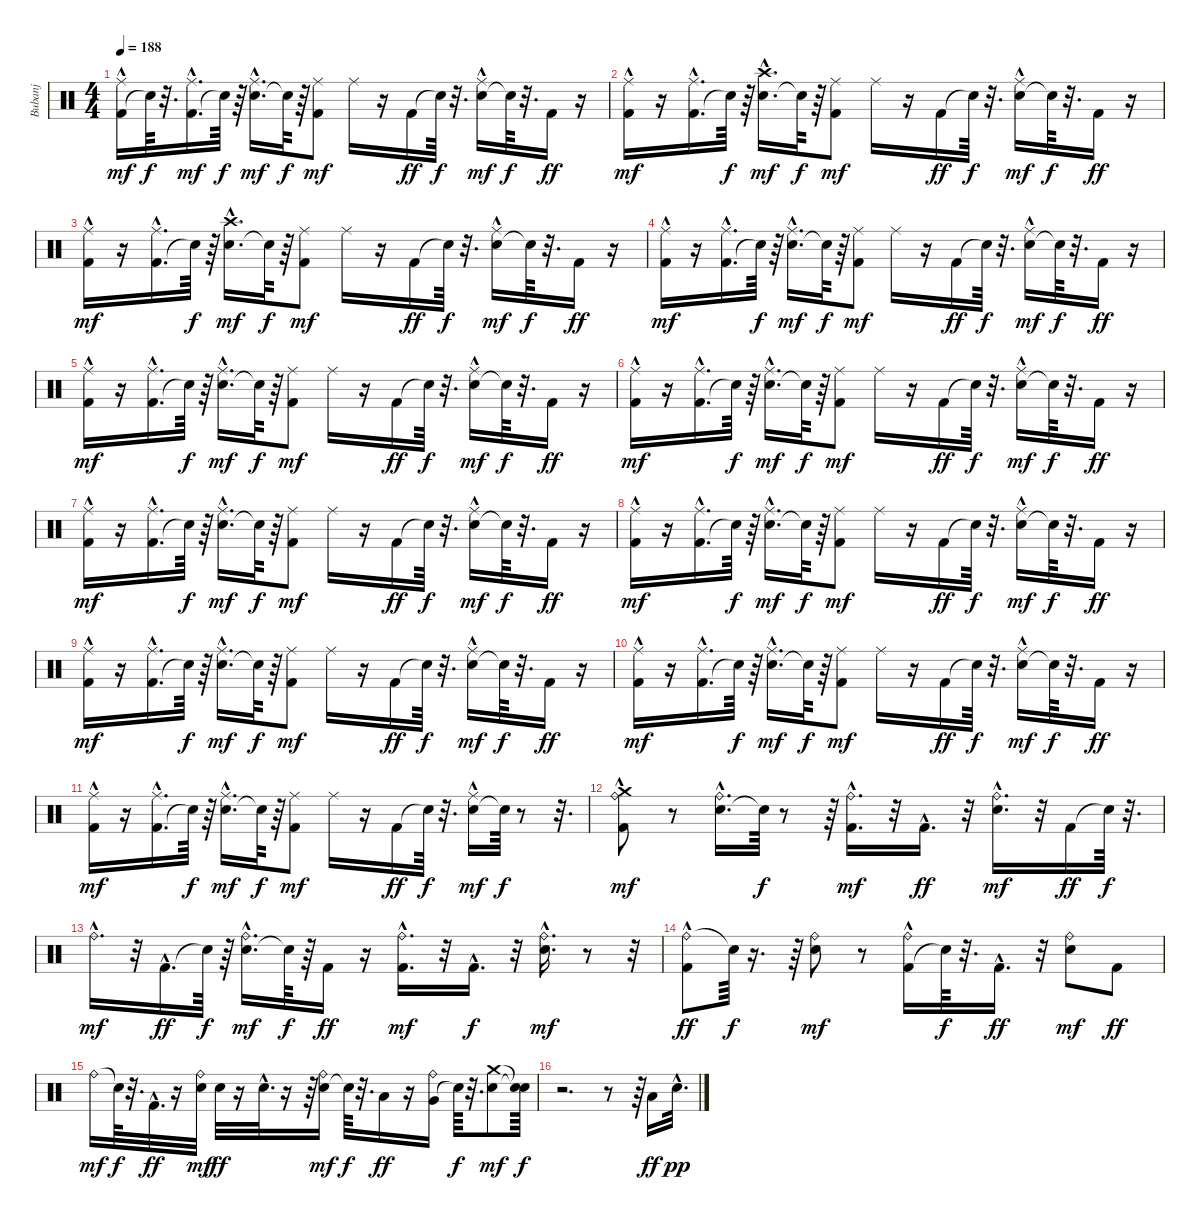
\track ("Bubanj" "Bubanj") {instrument percussion}
\staff {score}
\articulation defaults
\ts (4 4)
\tempo 188
\clef neutral
\ks c
("Kick (hit) 2" "Ride (middle)"{hac}).16{dy mf} "Snare (hit)"{t}.64{dy f} r.32{d} ("Kick (hit) 2"{hac} "Ride (middle)").16{d dy mf} "Snare (hit)"{t}.64{dy f} r.64 ("Electric Snare (hit)"{hac} "Ride (middle)").16{d dy mf} "Snare (hit)"{t}.64{dy f} r.64 ("Kick (hit) 2" "Ride (middle)").8{dy mf} "Ride (middle)".16 r.16 "Kick (hit) 2".16{dy ff} "Snare (hit)"{t}.64{dy f} r.32{d} ("Electric Snare (hit)" "Ride (middle)"{hac}).16{dy mf} "Snare (hit)"{t}.64{dy f} r.32{d} "Kick (hit) 2".16{dy ff} r.16 |
("Kick (hit) 2" "Ride (middle)"{hac}).16{dy mf} r.16 ("Kick (hit) 2"{hac} "Ride (middle)").16{d} "Snare (hit)"{t}.64{dy f} r.64 ("Electric Snare (hit)"{hac} "Crash high (hit)").16{d dy mf} "Snare (hit)"{t}.64{dy f} r.64 ("Kick (hit) 2" "Ride (middle)").8{dy mf} "Ride (middle)".16 r.16 "Kick (hit) 2".16{dy ff} "Snare (hit)"{t}.64{dy f} r.32{d} ("Electric Snare (hit)" "Ride (middle)"{hac}).16{dy mf} "Snare (hit)"{t}.64{dy f} r.32{d} "Kick (hit) 2".16{dy ff} r.16 |
("Kick (hit) 2" "Ride (middle)"{hac}).16{dy mf} r.16 ("Kick (hit) 2"{hac} "Ride (middle)").16{d} "Snare (hit)"{t}.64{dy f} r.64 ("Electric Snare (hit)"{hac} "Crash high (hit)").16{d dy mf} "Snare (hit)"{t}.64{dy f} r.64 ("Kick (hit) 2" "Ride (middle)").8{dy mf} "Ride (middle)".16 r.16 "Kick (hit) 2".16{dy ff} "Snare (hit)"{t}.64{dy f} r.32{d} ("Electric Snare (hit)" "Ride (middle)"{hac}).16{dy mf} "Snare (hit)"{t}.64{dy f} r.32{d} "Kick (hit) 2".16{dy ff} r.16 |
("Kick (hit) 2" "Ride (middle)"{hac}).16{dy mf} r.16 ("Kick (hit) 2"{hac} "Ride (middle)").16{d} "Snare (hit)"{t}.64{dy f} r.64 ("Electric Snare (hit)"{hac} "Ride (middle)").16{d dy mf} "Snare (hit)"{t}.64{dy f} r.64 ("Kick (hit) 2" "Ride (middle)").8{dy mf} "Ride (middle)".16 r.16 "Kick (hit) 2".16{dy ff} "Snare (hit)"{t}.64{dy f} r.32{d} ("Electric Snare (hit)" "Ride (middle)"{hac}).16{dy mf} "Snare (hit)"{t}.64{dy f} r.32{d} "Kick (hit) 2".16{dy ff} r.16 |
("Kick (hit) 2" "Ride (middle)"{hac}).16{dy mf} r.16 ("Kick (hit) 2"{hac} "Ride (middle)").16{d} "Snare (hit)"{t}.64{dy f} r.64 ("Electric Snare (hit)"{hac} "Ride (middle)").16{d dy mf} "Snare (hit)"{t}.64{dy f} r.64 ("Kick (hit) 2" "Ride (middle)").8{dy mf} "Ride (middle)".16 r.16 "Kick (hit) 2".16{dy ff} "Snare (hit)"{t}.64{dy f} r.32{d} ("Electric Snare (hit)" "Ride (middle)"{hac}).16{dy mf} "Snare (hit)"{t}.64{dy f} r.32{d} "Kick (hit) 2".16{dy ff} r.16 |
("Kick (hit) 2" "Ride (middle)"{hac}).16{dy mf} r.16 ("Kick (hit) 2"{hac} "Ride (middle)").16{d} "Snare (hit)"{t}.64{dy f} r.64 ("Electric Snare (hit)"{hac} "Ride (middle)").16{d dy mf} "Snare (hit)"{t}.64{dy f} r.64 ("Kick (hit) 2" "Ride (middle)").8{dy mf} "Ride (middle)".16 r.16 "Kick (hit) 2".16{dy ff} "Snare (hit)"{t}.64{dy f} r.32{d} ("Electric Snare (hit)" "Ride (middle)"{hac}).16{dy mf} "Snare (hit)"{t}.64{dy f} r.32{d} "Kick (hit) 2".16{dy ff} r.16 |
("Kick (hit) 2" "Ride (middle)"{hac}).16{dy mf} r.16 ("Kick (hit) 2"{hac} "Ride (middle)").16{d} "Snare (hit)"{t}.64{dy f} r.64 ("Electric Snare (hit)"{hac} "Ride (middle)").16{d dy mf} "Snare (hit)"{t}.64{dy f} r.64 ("Kick (hit) 2" "Ride (middle)").8{dy mf} "Ride (middle)".16 r.16 "Kick (hit) 2".16{dy ff} "Snare (hit)"{t}.64{dy f} r.32{d} ("Electric Snare (hit)" "Ride (middle)"{hac}).16{dy mf} "Snare (hit)"{t}.64{dy f} r.32{d} "Kick (hit) 2".16{dy ff} r.16 |
("Kick (hit) 2" "Ride (middle)"{hac}).16{dy mf} r.16 ("Kick (hit) 2"{hac} "Ride (middle)").16{d} "Snare (hit)"{t}.64{dy f} r.64 ("Electric Snare (hit)"{hac} "Ride (middle)").16{d dy mf} "Snare (hit)"{t}.64{dy f} r.64 ("Kick (hit) 2" "Ride (middle)").8{dy mf} "Ride (middle)".16 r.16 "Kick (hit) 2".16{dy ff} "Snare (hit)"{t}.64{dy f} r.32{d} ("Electric Snare (hit)" "Ride (middle)"{hac}).16{dy mf} "Snare (hit)"{t}.64{dy f} r.32{d} "Kick (hit) 2".16{dy ff} r.16 |
("Kick (hit) 2" "Ride (middle)"{hac}).16{dy mf} r.16 ("Kick (hit) 2"{hac} "Ride (middle)").16{d} "Snare (hit)"{t}.64{dy f} r.64 ("Electric Snare (hit)"{hac} "Ride (middle)").16{d dy mf} "Snare (hit)"{t}.64{dy f} r.64 ("Kick (hit) 2" "Ride (middle)").8{dy mf} "Ride (middle)".16 r.16 "Kick (hit) 2".16{dy ff} "Snare (hit)"{t}.64{dy f} r.32{d} ("Electric Snare (hit)" "Ride (middle)"{hac}).16{dy mf} "Snare (hit)"{t}.64{dy f} r.32{d} "Kick (hit) 2".16{dy ff} r.16 |
("Kick (hit) 2" "Ride (middle)"{hac}).16{dy mf} r.16 ("Kick (hit) 2"{hac} "Ride (middle)").16{d} "Snare (hit)"{t}.64{dy f} r.64 ("Electric Snare (hit)"{hac} "Ride (middle)").16{d dy mf} "Snare (hit)"{t}.64{dy f} r.64 ("Kick (hit) 2" "Ride (middle)").8{dy mf} "Ride (middle)".16 r.16 "Kick (hit) 2".16{dy ff} "Snare (hit)"{t}.64{dy f} r.32{d} ("Electric Snare (hit)" "Ride (middle)"{hac}).16{dy mf} "Snare (hit)"{t}.64{dy f} r.32{d} "Kick (hit) 2".16{dy ff} r.16 |
("Kick (hit) 2" "Ride (middle)"{hac}).16{dy mf} r.16 ("Kick (hit) 2"{hac} "Ride (middle)").16{d} "Snare (hit)"{t}.64{dy f} r.64 ("Electric Snare (hit)"{hac} "Ride (middle)").16{d dy mf} "Snare (hit)"{t}.64{dy f} r.64 ("Kick (hit) 2" "Ride (middle)").8{dy mf} "Ride (middle)".16 r.16 "Kick (hit) 2".16{dy ff} "Snare (hit)"{t}.64{dy f} r.32{d} ("Electric Snare (hit)" "Ride (middle)"{hac}).16{dy mf} "Snare (hit)"{t}.64{dy f} r.8 r.32{d} |
("Kick (hit) 2" "Ride (bell)"{hac} "Crash medium (hit)"{hac}).8{dy mf} r.8 ("Electric Snare (hit)"{hac} "Ride (bell)"{hac}).16{d} "Snare (hit)"{t}.64{dy f} r.8 r.64 ("Kick (hit) 2" "Ride (bell)"{hac}).16{d dy mf} r.32 "Kick (hit) 2"{hac}.16{d dy ff} r.32 ("Electric Snare (hit)" "Ride (bell)"{hac}).16{d dy mf} r.32 "Kick (hit) 2".16{dy ff} "Snare (hit)"{t}.64{dy f} r.32{d} |
"Ride (bell)"{hac}.16{d dy mf} r.32 "Kick (hit) 2"{hac}.16{d dy ff} "Snare (hit)"{t}.64{dy f} r.64 ("Electric Snare (hit)"{hac} "Ride (bell)"{hac}).16{d dy mf} "Snare (hit)"{t}.64{dy f} r.64 "Kick (hit) 2".16{dy ff} r.16 ("Kick (hit) 2" "Ride (bell)"{hac}).16{d dy mf} r.32 "Kick (hit) 2"{hac}.16{d dy f} r.32 ("Electric Snare (hit)" "Ride (bell)"{hac}).16{d dy mf} r.8 r.32 |
("Ride (bell)"{hac} "Kick (hit) 2").8{dy ff} "Snare (hit)"{t}.64{dy f} r.16{d} r.64 ("Electric Snare (hit)" "Ride (bell)").8{dy mf} r.8 ("Kick (hit) 2"{hac} "Ride (bell)").16 "Snare (hit)"{t}.64{dy f} r.32{d} "Kick (hit) 2"{hac}.16{d dy ff} r.32 ("Electric Snare (hit)" "Ride (bell)").8{dy mf} "Kick (hit) 2".8{dy ff} |
"Ride (bell)".16{dy mf} "Snare (hit)"{t}.64{dy f} r.32{d} "Kick (hit) 2"{hac}.32{d dy ff} r.16 ("Electric Snare (hit)" "Ride (bell)").32{dy mf} "Electric Snare (hit)".32{dy ff} r.16 "Electric Snare (hit)"{hac}.32{d} r.16 r.64 ("Electric Snare (hit)" "Ride (bell)").16{dy mf} "Snare (hit)"{t}.64{dy f} r.32{d} "Low Tom (hit)".16{dy ff} r.16 ("Very Low Tom (hit)" "Ride (bell)").16 "Snare (hit)"{t}.64{dy f} r.32{d} ("Crash medium (hit)" "Electric Snare (hit)").8{dy mf} ("Snare (hit)"{t} "Snare (hit)"{t}).64{dy f} |
r.2{d} r.8 r.64 "Low Tom (hit)".16{dy ff} "Electric Snare (hit)"{hac}.32{d dy pp}
